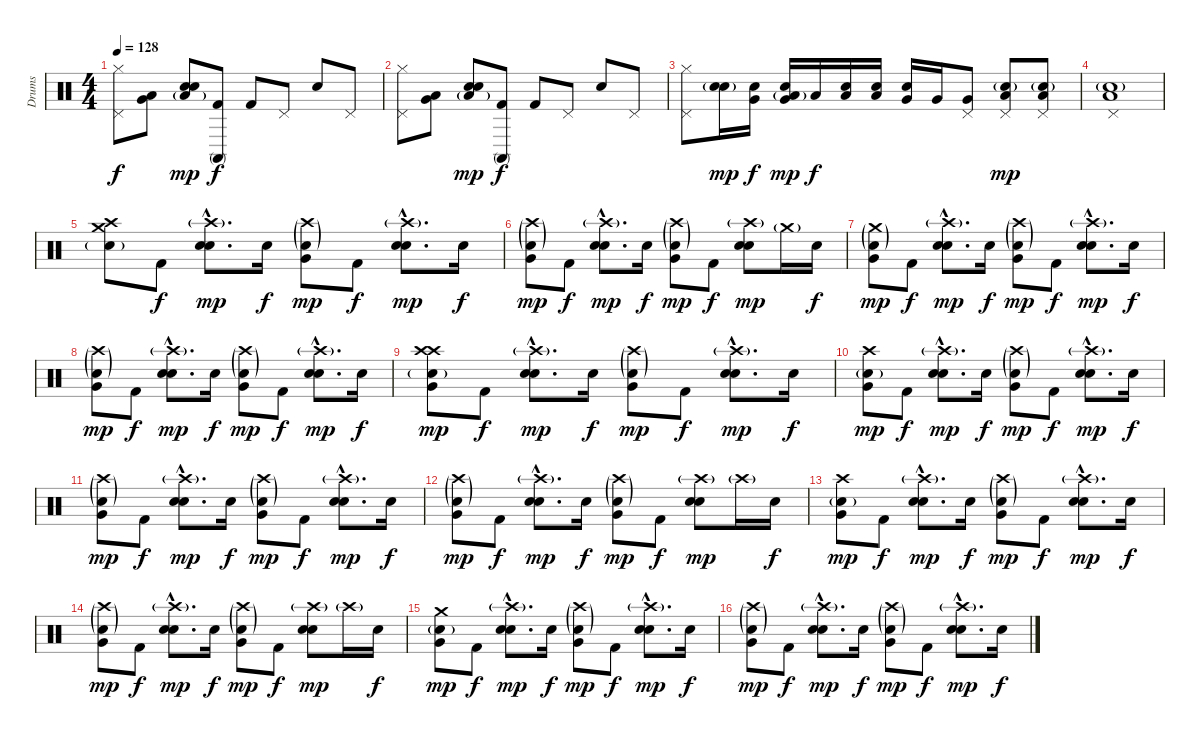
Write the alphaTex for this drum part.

\track ("Drums" "Drums") {instrument percussion}
\staff {score}
\articulation defaults
\ts (4 4)
\tempo 128
\clef neutral
\ks c
("Hi-Hat (closed)" "Pedal Hi-Hat (hit)").8{dy f} ("Very Low Tom (hit)" "Low Tom (hit)").8 ("Electric Snare (hit)" "Electric Snare (hit)" "Low Floor Tom (hit)"{g}).8{dy mp} ("Kick (hit) 2" "Conga high (mute)").8{dy f} "Kick (hit) 2".8 "Pedal Hi-Hat (hit)".8 "Electric Snare (hit)".8 "Pedal Hi-Hat (hit)".8 |
("Hi-Hat (closed)" "Pedal Hi-Hat (hit)").8 ("Very Low Tom (hit)" "Low Tom (hit)").8 ("Electric Snare (hit)" "Electric Snare (hit)" "Low Floor Tom (hit)"{g}).8{dy mp} ("Kick (hit) 2" "Conga high (mute)").8{dy f} "Kick (hit) 2".8 "Pedal Hi-Hat (hit)".8 "Electric Snare (hit)".8 "Pedal Hi-Hat (hit)".8 |
("Hi-Hat (closed)" "Pedal Hi-Hat (hit)").8 ("Electric Snare (hit)" "Electric Snare (hit)"{g}).16{dy mp} ("Electric Snare (hit)" "Very Low Tom (hit)").16{dy f} ("Electric Snare (hit)" "Very Low Tom (hit)" "Low Floor Tom (hit)"{g}).16{dy mp} "Low Floor Tom (hit)".16{dy f} ("Electric Snare (hit)" "Low Floor Tom (hit)").16 ("Electric Snare (hit)" "Low Floor Tom (hit)").16 ("Electric Snare (hit)" "Very Low Tom (hit)").16 "Very Low Tom (hit)".16 ("Pedal Hi-Hat (hit)" "Very Low Tom (hit)").8 ("Electric Snare (hit)"{g} "Low Tom (hit)" "Pedal Hi-Hat (hit)").8{dy mp} ("Electric Snare (hit)"{g} "Low Tom (hit)" "Pedal Hi-Hat (hit)").8 |
("Electric Snare (hit)"{g} "Low Tom (hit)" "Pedal Hi-Hat (hit)").1 |
("Crash high (hit)" "Crash medium (hit)" "Electric Snare (hit)"{g}).8 "Kick (hit) 2".8{dy f} ("Electric Snare (hit)"{hac} "Electric Snare (hit)"{hac} "Crash high (hit)"{g hac}).8{d dy mp} "Electric Snare (hit)".16{dy f} ("Very Low Tom (hit)" "Electric Snare (hit)"{g} "Crash high (hit)"{g}).8{dy mp} "Kick (hit) 2".8{dy f} ("Electric Snare (hit)"{hac} "Electric Snare (hit)"{hac} "Crash high (hit)"{g hac}).8{d dy mp} "Electric Snare (hit)".16{dy f} |
("Very Low Tom (hit)" "Electric Snare (hit)"{g} "Crash high (hit)"{g}).8{dy mp} "Kick (hit) 2".8{dy f} ("Electric Snare (hit)"{hac} "Electric Snare (hit)"{hac} "Crash high (hit)"{g hac}).8{d dy mp} "Electric Snare (hit)".16{dy f} ("Very Low Tom (hit)" "Electric Snare (hit)"{g} "Crash high (hit)"{g}).8{dy mp} "Kick (hit) 2".8{dy f} ("Electric Snare (hit)" "Electric Snare (hit)" "Crash high (hit)"{g}).8{dy mp} "Crash medium (hit)"{g}.16 "Electric Snare (hit)".16{dy f} |
("Very Low Tom (hit)" "Electric Snare (hit)"{g} "Crash medium (hit)"{g}).8{dy mp} "Kick (hit) 2".8{dy f} ("Electric Snare (hit)"{hac} "Electric Snare (hit)"{hac} "Crash high (hit)"{g hac}).8{d dy mp} "Electric Snare (hit)".16{dy f} ("Very Low Tom (hit)" "Electric Snare (hit)"{g} "Crash high (hit)"{g}).8{dy mp} "Kick (hit) 2".8{dy f} ("Electric Snare (hit)"{hac} "Electric Snare (hit)"{hac} "Crash high (hit)"{g hac}).8{d dy mp} "Electric Snare (hit)".16{dy f} |
("Very Low Tom (hit)" "Electric Snare (hit)"{g} "Crash high (hit)"{g}).8{dy mp} "Kick (hit) 2".8{dy f} ("Electric Snare (hit)"{hac} "Electric Snare (hit)"{hac} "Crash high (hit)"{g hac}).8{d dy mp} "Electric Snare (hit)".16{dy f} ("Very Low Tom (hit)" "Electric Snare (hit)"{g} "Crash high (hit)"{g}).8{dy mp} "Kick (hit) 2".8{dy f} ("Electric Snare (hit)"{hac} "Electric Snare (hit)"{hac} "Crash high (hit)"{g hac}).8{d dy mp} "Electric Snare (hit)".16{dy f} |
("Very Low Tom (hit)" "Electric Snare (hit)"{g} "Crash high (hit)" "Crash high (hit)").8{dy mp} "Kick (hit) 2".8{dy f} ("Electric Snare (hit)"{hac} "Electric Snare (hit)"{hac} "Crash high (hit)"{g hac}).8{d dy mp} "Electric Snare (hit)".16{dy f} ("Very Low Tom (hit)" "Electric Snare (hit)"{g} "Crash high (hit)"{g}).8{dy mp} "Kick (hit) 2".8{dy f} ("Electric Snare (hit)"{hac} "Electric Snare (hit)"{hac} "Crash high (hit)"{g hac}).8{d dy mp} "Electric Snare (hit)".16{dy f} |
("Very Low Tom (hit)" "Electric Snare (hit)"{g} "Crash high (hit)").8{dy mp} "Kick (hit) 2".8{dy f} ("Electric Snare (hit)"{hac} "Electric Snare (hit)"{hac} "Crash high (hit)"{g hac}).8{d dy mp} "Electric Snare (hit)".16{dy f} ("Very Low Tom (hit)" "Electric Snare (hit)"{g} "Crash high (hit)"{g}).8{dy mp} "Kick (hit) 2".8{dy f} ("Electric Snare (hit)"{hac} "Electric Snare (hit)"{hac} "Crash high (hit)"{g hac}).8{d dy mp} "Electric Snare (hit)".16{dy f} |
("Very Low Tom (hit)" "Electric Snare (hit)"{g} "Crash high (hit)"{g}).8{dy mp} "Kick (hit) 2".8{dy f} ("Electric Snare (hit)"{hac} "Electric Snare (hit)"{hac} "Crash high (hit)"{g hac}).8{d dy mp} "Electric Snare (hit)".16{dy f} ("Very Low Tom (hit)" "Electric Snare (hit)"{g} "Crash high (hit)"{g}).8{dy mp} "Kick (hit) 2".8{dy f} ("Electric Snare (hit)"{hac} "Electric Snare (hit)"{hac} "Crash high (hit)"{g hac}).8{d dy mp} "Electric Snare (hit)".16{dy f} |
("Very Low Tom (hit)" "Electric Snare (hit)"{g} "Crash high (hit)"{g}).8{dy mp} "Kick (hit) 2".8{dy f} ("Electric Snare (hit)"{hac} "Electric Snare (hit)"{hac} "Crash high (hit)"{g hac}).8{d dy mp} "Electric Snare (hit)".16{dy f} ("Very Low Tom (hit)" "Electric Snare (hit)"{g} "Crash high (hit)"{g}).8{dy mp} "Kick (hit) 2".8{dy f} ("Electric Snare (hit)" "Electric Snare (hit)" "Crash high (hit)"{g}).8{dy mp} "Crash high (hit)"{g}.16 "Electric Snare (hit)".16{dy f} |
("Very Low Tom (hit)" "Electric Snare (hit)"{g} "Crash high (hit)").8{dy mp} "Kick (hit) 2".8{dy f} ("Electric Snare (hit)"{hac} "Electric Snare (hit)"{hac} "Crash high (hit)"{g hac}).8{d dy mp} "Electric Snare (hit)".16{dy f} ("Very Low Tom (hit)" "Electric Snare (hit)"{g} "Crash high (hit)"{g}).8{dy mp} "Kick (hit) 2".8{dy f} ("Electric Snare (hit)"{hac} "Electric Snare (hit)"{hac} "Crash high (hit)"{g hac}).8{d dy mp} "Electric Snare (hit)".16{dy f} |
("Very Low Tom (hit)" "Electric Snare (hit)"{g} "Crash high (hit)"{g}).8{dy mp} "Kick (hit) 2".8{dy f} ("Electric Snare (hit)"{hac} "Electric Snare (hit)"{hac} "Crash high (hit)"{g hac}).8{d dy mp} "Electric Snare (hit)".16{dy f} ("Very Low Tom (hit)" "Electric Snare (hit)"{g} "Crash high (hit)"{g}).8{dy mp} "Kick (hit) 2".8{dy f} ("Electric Snare (hit)" "Electric Snare (hit)" "Crash high (hit)"{g}).8{dy mp} "Crash high (hit)"{g}.16 "Electric Snare (hit)".16{dy f} |
("Very Low Tom (hit)" "Electric Snare (hit)"{g} "Crash medium (hit)").8{dy mp} "Kick (hit) 2".8{dy f} ("Electric Snare (hit)"{hac} "Electric Snare (hit)"{hac} "Crash high (hit)"{g hac}).8{d dy mp} "Electric Snare (hit)".16{dy f} ("Very Low Tom (hit)" "Electric Snare (hit)"{g} "Crash high (hit)"{g}).8{dy mp} "Kick (hit) 2".8{dy f} ("Electric Snare (hit)"{hac} "Electric Snare (hit)"{hac} "Crash high (hit)"{g hac}).8{d dy mp} "Electric Snare (hit)".16{dy f} |
("Very Low Tom (hit)" "Electric Snare (hit)"{g} "Crash high (hit)"{g}).8{dy mp} "Kick (hit) 2".8{dy f} ("Electric Snare (hit)"{hac} "Electric Snare (hit)"{hac} "Crash high (hit)"{g hac}).8{d dy mp} "Electric Snare (hit)".16{dy f} ("Very Low Tom (hit)" "Electric Snare (hit)"{g} "Crash high (hit)"{g}).8{dy mp} "Kick (hit) 2".8{dy f} ("Electric Snare (hit)"{hac} "Electric Snare (hit)"{hac} "Crash high (hit)"{g hac}).8{d dy mp} "Electric Snare (hit)".16{dy f}
